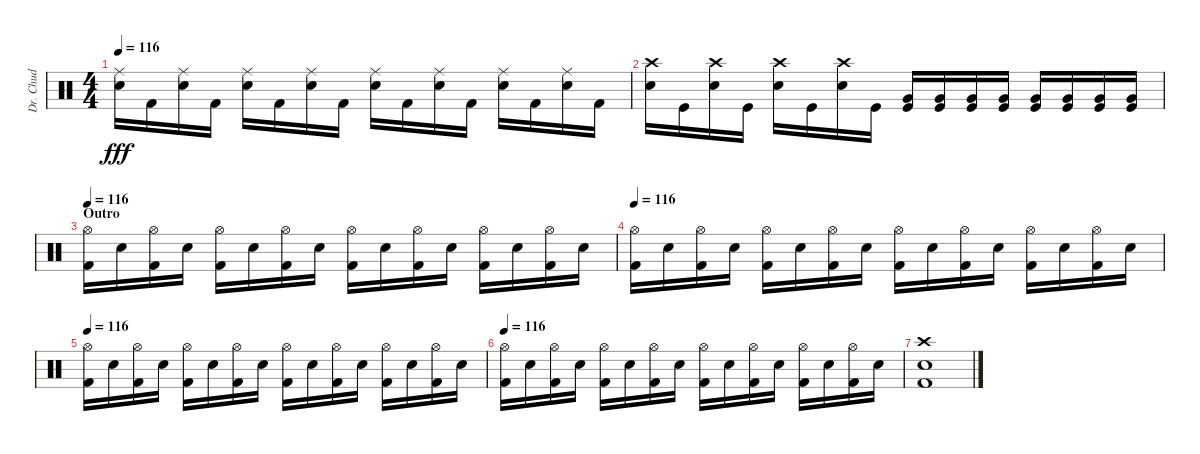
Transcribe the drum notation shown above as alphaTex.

\track ("Dr. Chud" "Dr. Chud") {instrument percussion}
\staff {score}
\articulation defaults
\ts (4 4)
\tempo 116
\clef neutral
\ks c
("Ride (middle)" "Electric Snare (hit)").16{dy fff} "Kick (hit) 2".16 ("Ride (middle)" "Electric Snare (hit)").16 "Kick (hit) 2".16 ("Ride (middle)" "Electric Snare (hit)").16 "Kick (hit) 2".16 ("Ride (middle)" "Electric Snare (hit)").16 "Kick (hit) 2".16 ("Ride (middle)" "Electric Snare (hit)").16 "Kick (hit) 2".16 ("Ride (middle)" "Electric Snare (hit)").16 "Kick (hit) 2".16 ("Ride (middle)" "Electric Snare (hit)").16 "Kick (hit) 2".16 ("Ride (middle)" "Electric Snare (hit)").16 "Kick (hit) 2".16 |
("Crash high (hit)" "Electric Snare (hit)").16 "Kick (hit)".16 ("Crash high (hit)" "Electric Snare (hit)").16 "Kick (hit)".16 ("Crash high (hit)" "Electric Snare (hit)").16 "Kick (hit)".16 ("Crash high (hit)" "Electric Snare (hit)").16 "Kick (hit)".16 ("Very Low Tom (hit)" "Kick (hit)").16 ("Very Low Tom (hit)" "Kick (hit)").16 ("Very Low Tom (hit)" "Kick (hit)").16 ("Very Low Tom (hit)" "Kick (hit)").16 ("Very Low Tom (hit)" "Kick (hit)").16 ("Very Low Tom (hit)" "Kick (hit)").16 ("Very Low Tom (hit)" "Kick (hit)").16 ("Very Low Tom (hit)" "Kick (hit)").16 |
\section ("" "Outro")
\tempo 116
("Hi-Hat (open)" "Kick (hit) 2").16 "Electric Snare (hit)".16 ("Hi-Hat (open)" "Kick (hit) 2").16 "Electric Snare (hit)".16 ("Hi-Hat (open)" "Kick (hit) 2").16 "Electric Snare (hit)".16 ("Hi-Hat (open)" "Kick (hit) 2").16 "Electric Snare (hit)".16 ("Hi-Hat (open)" "Kick (hit) 2").16 "Electric Snare (hit)".16 ("Hi-Hat (open)" "Kick (hit) 2").16 "Electric Snare (hit)".16 ("Hi-Hat (open)" "Kick (hit) 2").16 "Electric Snare (hit)".16 ("Hi-Hat (open)" "Kick (hit) 2").16 "Electric Snare (hit)".16 |
\tempo 116
("Hi-Hat (open)" "Kick (hit) 2").16 "Electric Snare (hit)".16 ("Hi-Hat (open)" "Kick (hit) 2").16 "Electric Snare (hit)".16 ("Hi-Hat (open)" "Kick (hit) 2").16 "Electric Snare (hit)".16 ("Hi-Hat (open)" "Kick (hit) 2").16 "Electric Snare (hit)".16 ("Hi-Hat (open)" "Kick (hit) 2").16 "Electric Snare (hit)".16 ("Hi-Hat (open)" "Kick (hit) 2").16 "Electric Snare (hit)".16 ("Hi-Hat (open)" "Kick (hit) 2").16 "Electric Snare (hit)".16 ("Hi-Hat (open)" "Kick (hit) 2").16 "Electric Snare (hit)".16 |
\tempo 116
("Hi-Hat (open)" "Kick (hit) 2").16 "Electric Snare (hit)".16 ("Hi-Hat (open)" "Kick (hit) 2").16 "Electric Snare (hit)".16 ("Hi-Hat (open)" "Kick (hit) 2").16 "Electric Snare (hit)".16 ("Hi-Hat (open)" "Kick (hit) 2").16 "Electric Snare (hit)".16 ("Hi-Hat (open)" "Kick (hit) 2").16 "Electric Snare (hit)".16 ("Hi-Hat (open)" "Kick (hit) 2").16 "Electric Snare (hit)".16 ("Hi-Hat (open)" "Kick (hit) 2").16 "Electric Snare (hit)".16 ("Hi-Hat (open)" "Kick (hit) 2").16 "Electric Snare (hit)".16 |
\tempo 116
("Hi-Hat (open)" "Kick (hit) 2").16 "Electric Snare (hit)".16 ("Hi-Hat (open)" "Kick (hit) 2").16 "Electric Snare (hit)".16 ("Hi-Hat (open)" "Kick (hit) 2").16 "Electric Snare (hit)".16 ("Hi-Hat (open)" "Kick (hit) 2").16 "Electric Snare (hit)".16 ("Hi-Hat (open)" "Kick (hit) 2").16 "Electric Snare (hit)".16 ("Hi-Hat (open)" "Kick (hit) 2").16 "Electric Snare (hit)".16 ("Hi-Hat (open)" "Kick (hit) 2").16 "Electric Snare (hit)".16 ("Hi-Hat (open)" "Kick (hit) 2").16 "Electric Snare (hit)".16 |
("Crash high (hit)" "Electric Snare (hit)" "Kick (hit) 2").1
